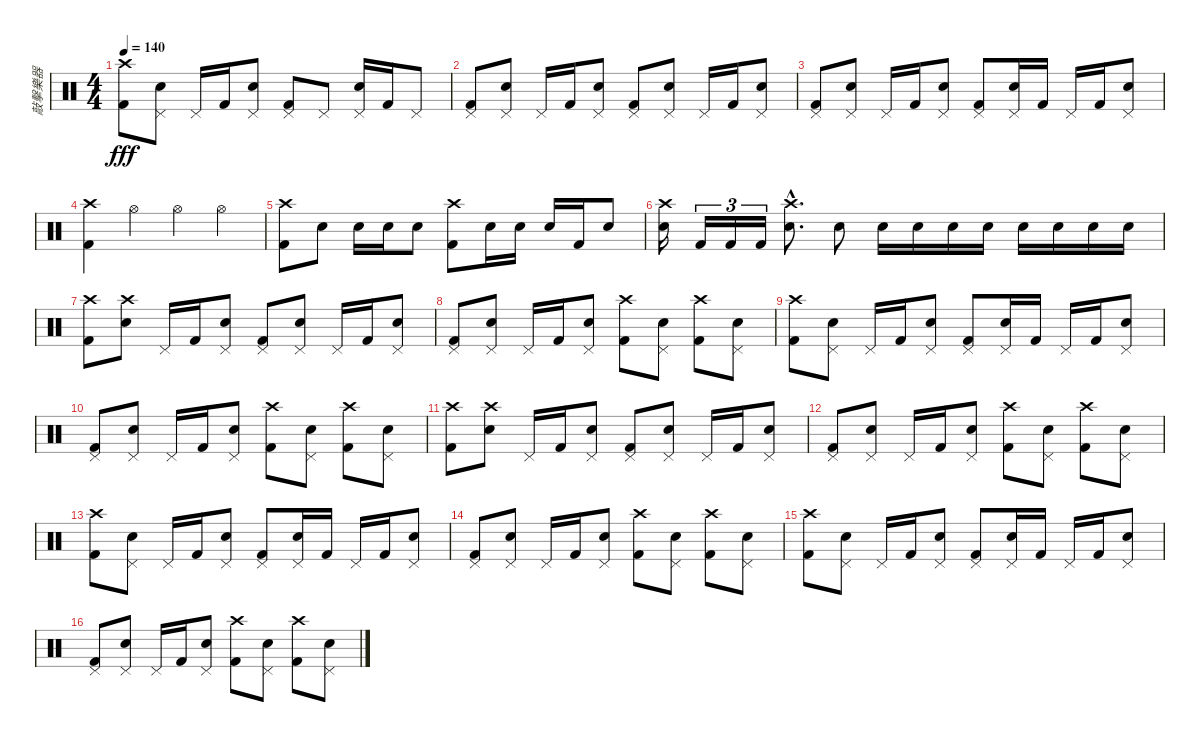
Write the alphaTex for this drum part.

\track ("敲擊樂器" "敲擊樂器") {instrument percussion}
\staff {score}
\articulation defaults
\ts (4 4)
\tempo 140
\clef neutral
\ks c
("Crash high (hit)" "Kick (hit) 2").8{dy fff} ("Pedal Hi-Hat (hit)" "Snare (hit) 2").8 "Pedal Hi-Hat (hit)".16 "Kick (hit) 2".16 ("Pedal Hi-Hat (hit)" "Snare (hit) 2").8 ("Pedal Hi-Hat (hit)" "Kick (hit) 2").8 "Pedal Hi-Hat (hit)".8 ("Pedal Hi-Hat (hit)" "Snare (hit) 2").16 "Kick (hit) 2".16 "Pedal Hi-Hat (hit)".8 |
("Pedal Hi-Hat (hit)" "Kick (hit) 2").8 ("Pedal Hi-Hat (hit)" "Snare (hit) 2").8 "Pedal Hi-Hat (hit)".16 "Kick (hit) 2".16 ("Pedal Hi-Hat (hit)" "Snare (hit) 2").8 ("Pedal Hi-Hat (hit)" "Kick (hit) 2").8 ("Pedal Hi-Hat (hit)" "Snare (hit) 2").8 "Pedal Hi-Hat (hit)".16 "Kick (hit) 2".16 ("Pedal Hi-Hat (hit)" "Snare (hit) 2").8 |
("Pedal Hi-Hat (hit)" "Kick (hit) 2").8 ("Pedal Hi-Hat (hit)" "Snare (hit) 2").8 "Pedal Hi-Hat (hit)".16 "Kick (hit) 2".16 ("Pedal Hi-Hat (hit)" "Snare (hit) 2").8 ("Pedal Hi-Hat (hit)" "Kick (hit) 2").8 ("Pedal Hi-Hat (hit)" "Snare (hit) 2").16 "Kick (hit) 2".16 "Pedal Hi-Hat (hit)".16 "Kick (hit) 2".16 ("Pedal Hi-Hat (hit)" "Snare (hit) 2").8 |
("Crash high (hit)" "Kick (hit) 2").4 "Hi-Hat (open)".4 "Hi-Hat (open)".4 "Hi-Hat (open)".4 |
("Crash high (hit)" "Kick (hit) 2").8 "Snare (hit) 2".8 "Snare (hit) 2".16 "Snare (hit) 2".16 "Snare (hit) 2".8 ("Crash high (hit)" "Kick (hit) 2").8 "Snare (hit) 2".16 "Snare (hit) 2".16 "Snare (hit) 2".16 "Kick (hit) 2".16 "Snare (hit) 2".8 |
("Crash high (hit)" "Snare (hit) 2").16 "Kick (hit) 2".16{tu (3 2)} "Kick (hit) 2".16{tu (3 2)} "Kick (hit) 2".16{tu (3 2)} ("Crash high (hit)"{hac} "Snare (hit) 2"{hac}).8{d} "Snare (hit) 2".8 "Snare (hit) 2".16 "Snare (hit) 2".16 "Snare (hit) 2".16 "Snare (hit) 2".16 "Snare (hit) 2".16 "Snare (hit) 2".16 "Snare (hit) 2".16 "Snare (hit) 2".16 |
("Crash high (hit)" "Kick (hit) 2").8 ("Crash high (hit)" "Snare (hit) 2").8 "Pedal Hi-Hat (hit)".16 "Kick (hit) 2".16 ("Pedal Hi-Hat (hit)" "Snare (hit) 2").8 ("Pedal Hi-Hat (hit)" "Kick (hit) 2").8 ("Pedal Hi-Hat (hit)" "Snare (hit) 2").8 "Pedal Hi-Hat (hit)".16 "Kick (hit) 2".16 ("Pedal Hi-Hat (hit)" "Snare (hit) 2").8 |
("Pedal Hi-Hat (hit)" "Kick (hit) 2").8 ("Pedal Hi-Hat (hit)" "Snare (hit) 2").8 "Pedal Hi-Hat (hit)".16 "Kick (hit) 2".16 ("Pedal Hi-Hat (hit)" "Snare (hit) 2").8 ("Crash high (hit)" "Kick (hit) 2").8 ("Pedal Hi-Hat (hit)" "Snare (hit) 2").8 ("Crash high (hit)" "Kick (hit) 2").8 ("Pedal Hi-Hat (hit)" "Snare (hit) 2").8 |
("Crash high (hit)" "Kick (hit) 2").8 ("Pedal Hi-Hat (hit)" "Snare (hit) 2").8 "Pedal Hi-Hat (hit)".16 "Kick (hit) 2".16 ("Pedal Hi-Hat (hit)" "Snare (hit) 2").8 ("Pedal Hi-Hat (hit)" "Kick (hit) 2").8 ("Pedal Hi-Hat (hit)" "Snare (hit) 2").16 "Kick (hit) 2".16 "Pedal Hi-Hat (hit)".16 "Kick (hit) 2".16 ("Pedal Hi-Hat (hit)" "Snare (hit) 2").8 |
("Pedal Hi-Hat (hit)" "Kick (hit) 2").8 ("Pedal Hi-Hat (hit)" "Snare (hit) 2").8 "Pedal Hi-Hat (hit)".16 "Kick (hit) 2".16 ("Pedal Hi-Hat (hit)" "Snare (hit) 2").8 ("Crash high (hit)" "Kick (hit) 2").8 ("Pedal Hi-Hat (hit)" "Snare (hit) 2").8 ("Crash high (hit)" "Kick (hit) 2").8 ("Pedal Hi-Hat (hit)" "Snare (hit) 2").8 |
("Crash high (hit)" "Kick (hit) 2").8 ("Crash high (hit)" "Snare (hit) 2").8 "Pedal Hi-Hat (hit)".16 "Kick (hit) 2".16 ("Pedal Hi-Hat (hit)" "Snare (hit) 2").8 ("Pedal Hi-Hat (hit)" "Kick (hit) 2").8 ("Pedal Hi-Hat (hit)" "Snare (hit) 2").8 "Pedal Hi-Hat (hit)".16 "Kick (hit) 2".16 ("Pedal Hi-Hat (hit)" "Snare (hit) 2").8 |
("Pedal Hi-Hat (hit)" "Kick (hit) 2").8 ("Pedal Hi-Hat (hit)" "Snare (hit) 2").8 "Pedal Hi-Hat (hit)".16 "Kick (hit) 2".16 ("Pedal Hi-Hat (hit)" "Snare (hit) 2").8 ("Crash high (hit)" "Kick (hit) 2").8 ("Pedal Hi-Hat (hit)" "Snare (hit) 2").8 ("Crash high (hit)" "Kick (hit) 2").8 ("Pedal Hi-Hat (hit)" "Snare (hit) 2").8 |
("Crash high (hit)" "Kick (hit) 2").8 ("Pedal Hi-Hat (hit)" "Snare (hit) 2").8 "Pedal Hi-Hat (hit)".16 "Kick (hit) 2".16 ("Pedal Hi-Hat (hit)" "Snare (hit) 2").8 ("Pedal Hi-Hat (hit)" "Kick (hit) 2").8 ("Pedal Hi-Hat (hit)" "Snare (hit) 2").16 "Kick (hit) 2".16 "Pedal Hi-Hat (hit)".16 "Kick (hit) 2".16 ("Pedal Hi-Hat (hit)" "Snare (hit) 2").8 |
("Pedal Hi-Hat (hit)" "Kick (hit) 2").8 ("Pedal Hi-Hat (hit)" "Snare (hit) 2").8 "Pedal Hi-Hat (hit)".16 "Kick (hit) 2".16 ("Pedal Hi-Hat (hit)" "Snare (hit) 2").8 ("Crash high (hit)" "Kick (hit) 2").8 ("Pedal Hi-Hat (hit)" "Snare (hit) 2").8 ("Crash high (hit)" "Kick (hit) 2").8 ("Pedal Hi-Hat (hit)" "Snare (hit) 2").8 |
("Crash high (hit)" "Kick (hit) 2").8 ("Pedal Hi-Hat (hit)" "Snare (hit) 2").8 "Pedal Hi-Hat (hit)".16 "Kick (hit) 2".16 ("Pedal Hi-Hat (hit)" "Snare (hit) 2").8 ("Pedal Hi-Hat (hit)" "Kick (hit) 2").8 ("Pedal Hi-Hat (hit)" "Snare (hit) 2").16 "Kick (hit) 2".16 "Pedal Hi-Hat (hit)".16 "Kick (hit) 2".16 ("Pedal Hi-Hat (hit)" "Snare (hit) 2").8 |
("Pedal Hi-Hat (hit)" "Kick (hit) 2").8 ("Pedal Hi-Hat (hit)" "Snare (hit) 2").8 "Pedal Hi-Hat (hit)".16 "Kick (hit) 2".16 ("Pedal Hi-Hat (hit)" "Snare (hit) 2").8 ("Crash high (hit)" "Kick (hit) 2").8 ("Pedal Hi-Hat (hit)" "Snare (hit) 2").8 ("Crash high (hit)" "Kick (hit) 2").8 ("Pedal Hi-Hat (hit)" "Snare (hit) 2").8
